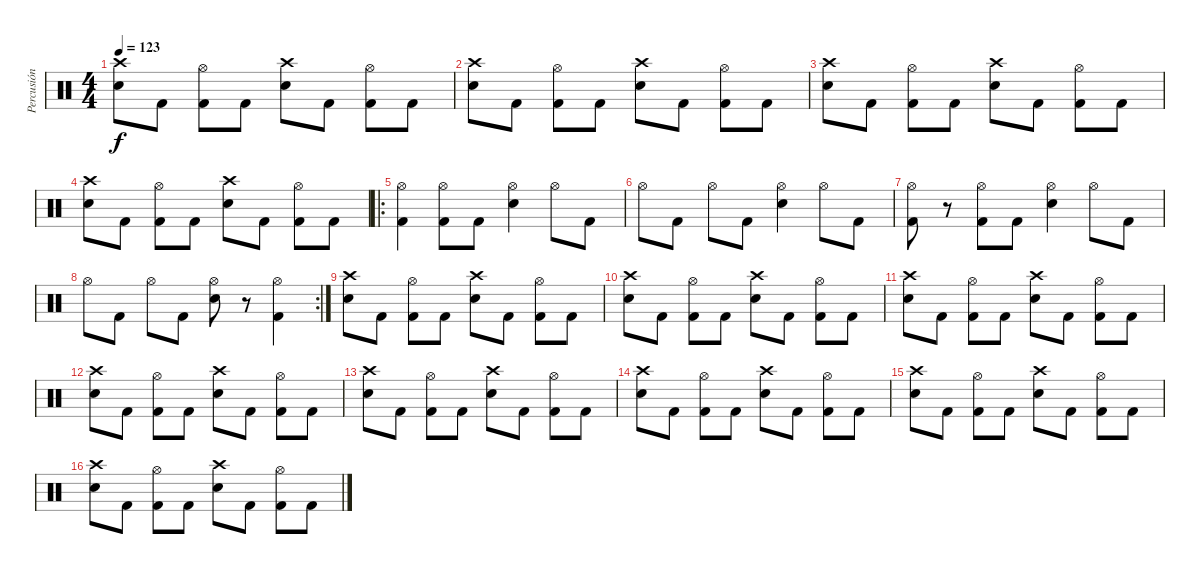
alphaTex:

\track ("Percusión" "Percusión") {instrument percussion}
\staff {score}
\articulation defaults
\ts (4 4)
\tempo 123
\clef neutral
\ks c
("Crash high (hit)" "Snare (hit) 2").8{dy f} "Kick (hit) 2".8 ("Hi-Hat (open)" "Kick (hit) 2").8 "Kick (hit) 2".8 ("Crash high (hit)" "Snare (hit) 2").8 "Kick (hit) 2".8 ("Hi-Hat (open)" "Kick (hit) 2").8 "Kick (hit) 2".8 |
("Crash high (hit)" "Snare (hit) 2").8 "Kick (hit) 2".8 ("Hi-Hat (open)" "Kick (hit) 2").8 "Kick (hit) 2".8 ("Crash high (hit)" "Snare (hit) 2").8 "Kick (hit) 2".8 ("Hi-Hat (open)" "Kick (hit) 2").8 "Kick (hit) 2".8 |
("Crash high (hit)" "Snare (hit) 2").8 "Kick (hit) 2".8 ("Hi-Hat (open)" "Kick (hit) 2").8 "Kick (hit) 2".8 ("Crash high (hit)" "Snare (hit) 2").8 "Kick (hit) 2".8 ("Hi-Hat (open)" "Kick (hit) 2").8 "Kick (hit) 2".8 |
("Crash high (hit)" "Snare (hit) 2").8 "Kick (hit) 2".8 ("Hi-Hat (open)" "Kick (hit) 2").8 "Kick (hit) 2".8 ("Crash high (hit)" "Snare (hit) 2").8 "Kick (hit) 2".8 ("Hi-Hat (open)" "Kick (hit) 2").8 "Kick (hit) 2".8 |
\ro
("Hi-Hat (open)" "Kick (hit) 2").4 ("Hi-Hat (open)" "Kick (hit) 2").8 "Kick (hit) 2".8 ("Hi-Hat (open)" "Snare (hit) 2").4 "Hi-Hat (open)".8 "Kick (hit) 2".8 |
"Hi-Hat (open)".8 "Kick (hit) 2".8 "Hi-Hat (open)".8 "Kick (hit) 2".8 ("Hi-Hat (open)" "Snare (hit) 2").4 "Hi-Hat (open)".8 "Kick (hit) 2".8 |
("Hi-Hat (open)" "Kick (hit) 2").8 r.8 ("Hi-Hat (open)" "Kick (hit) 2").8 "Kick (hit) 2".8 ("Hi-Hat (open)" "Snare (hit) 2").4 "Hi-Hat (open)".8 "Kick (hit) 2".8 |
\rc 2 "Hi-Hat (open)".8 "Kick (hit) 2".8 "Hi-Hat (open)".8 "Kick (hit) 2".8
("Hi-Hat (open)" "Snare (hit) 2").8 r.8 ("Hi-Hat (open)" "Kick (hit) 2").4 |
("Crash high (hit)" "Snare (hit) 2").8 "Kick (hit) 2".8 ("Hi-Hat (open)" "Kick (hit) 2").8 "Kick (hit) 2".8 ("Crash high (hit)" "Snare (hit) 2").8 "Kick (hit) 2".8 ("Hi-Hat (open)" "Kick (hit) 2").8 "Kick (hit) 2".8 |
("Crash high (hit)" "Snare (hit) 2").8 "Kick (hit) 2".8 ("Hi-Hat (open)" "Kick (hit) 2").8 "Kick (hit) 2".8 ("Crash high (hit)" "Snare (hit) 2").8 "Kick (hit) 2".8 ("Hi-Hat (open)" "Kick (hit) 2").8 "Kick (hit) 2".8 |
("Crash high (hit)" "Snare (hit) 2").8 "Kick (hit) 2".8 ("Hi-Hat (open)" "Kick (hit) 2").8 "Kick (hit) 2".8 ("Crash high (hit)" "Snare (hit) 2").8 "Kick (hit) 2".8 ("Hi-Hat (open)" "Kick (hit) 2").8 "Kick (hit) 2".8 |
("Crash high (hit)" "Snare (hit) 2").8 "Kick (hit) 2".8 ("Hi-Hat (open)" "Kick (hit) 2").8 "Kick (hit) 2".8 ("Crash high (hit)" "Snare (hit) 2").8 "Kick (hit) 2".8 ("Hi-Hat (open)" "Kick (hit) 2").8 "Kick (hit) 2".8 |
("Crash high (hit)" "Snare (hit) 2").8 "Kick (hit) 2".8 ("Hi-Hat (open)" "Kick (hit) 2").8 "Kick (hit) 2".8 ("Crash high (hit)" "Snare (hit) 2").8 "Kick (hit) 2".8 ("Hi-Hat (open)" "Kick (hit) 2").8 "Kick (hit) 2".8 |
("Crash high (hit)" "Snare (hit) 2").8 "Kick (hit) 2".8 ("Hi-Hat (open)" "Kick (hit) 2").8 "Kick (hit) 2".8 ("Crash high (hit)" "Snare (hit) 2").8 "Kick (hit) 2".8 ("Hi-Hat (open)" "Kick (hit) 2").8 "Kick (hit) 2".8 |
("Crash high (hit)" "Snare (hit) 2").8 "Kick (hit) 2".8 ("Hi-Hat (open)" "Kick (hit) 2").8 "Kick (hit) 2".8 ("Crash high (hit)" "Snare (hit) 2").8 "Kick (hit) 2".8 ("Hi-Hat (open)" "Kick (hit) 2").8 "Kick (hit) 2".8 |
("Crash high (hit)" "Snare (hit) 2").8 "Kick (hit) 2".8 ("Hi-Hat (open)" "Kick (hit) 2").8 "Kick (hit) 2".8 ("Crash high (hit)" "Snare (hit) 2").8 "Kick (hit) 2".8 ("Hi-Hat (open)" "Kick (hit) 2").8 "Kick (hit) 2".8
